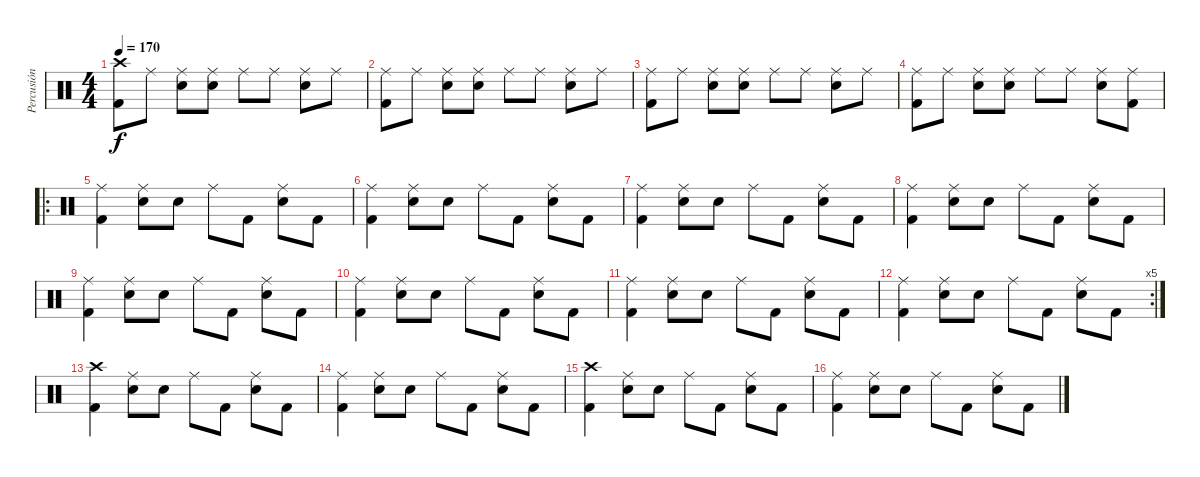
\track ("Percusión" "Percusión") {instrument percussion}
\staff {score}
\articulation defaults
\ts (4 4)
\tempo 170
\clef neutral
\ks c
("Crash high (hit)" "Kick (hit) 2").8{dy f} "Ride (middle)".8 ("Ride (middle)" "Electric Snare (hit)").8 ("Ride (middle)" "Electric Snare (hit)").8 "Ride (middle)".8 "Ride (middle)".8 ("Ride (middle)" "Electric Snare (hit)").8 "Ride (middle)".8 |
("Ride (middle)" "Kick (hit) 2").8 "Ride (middle)".8 ("Ride (middle)" "Electric Snare (hit)").8 ("Ride (middle)" "Electric Snare (hit)").8 "Ride (middle)".8 "Ride (middle)".8 ("Ride (middle)" "Electric Snare (hit)").8 "Ride (middle)".8 |
("Ride (middle)" "Kick (hit) 2").8 "Ride (middle)".8 ("Ride (middle)" "Electric Snare (hit)").8 ("Ride (middle)" "Electric Snare (hit)").8 "Ride (middle)".8 "Ride (middle)".8 ("Ride (middle)" "Electric Snare (hit)").8 "Ride (middle)".8 |
("Ride (middle)" "Kick (hit) 2").8 "Ride (middle)".8 ("Ride (middle)" "Electric Snare (hit)").8 ("Ride (middle)" "Electric Snare (hit)").8 "Ride (middle)".8 "Ride (middle)".8 ("Ride (middle)" "Electric Snare (hit)").8 ("Ride (middle)" "Kick (hit) 2").8 |
\ro
("Ride (middle)" "Kick (hit) 2").4 ("Ride (middle)" "Electric Snare (hit)").8 "Electric Snare (hit)".8 "Ride (middle)".8 "Kick (hit) 2".8 ("Ride (middle)" "Electric Snare (hit)").8 "Kick (hit) 2".8 |
("Ride (middle)" "Kick (hit) 2").4 ("Ride (middle)" "Electric Snare (hit)").8 "Electric Snare (hit)".8 "Ride (middle)".8 "Kick (hit) 2".8 ("Ride (middle)" "Electric Snare (hit)").8 "Kick (hit) 2".8 |
("Ride (middle)" "Kick (hit) 2").4 ("Ride (middle)" "Electric Snare (hit)").8 "Electric Snare (hit)".8 "Ride (middle)".8 "Kick (hit) 2".8 ("Ride (middle)" "Electric Snare (hit)").8 "Kick (hit) 2".8 |
("Ride (middle)" "Kick (hit) 2").4 ("Ride (middle)" "Electric Snare (hit)").8 "Electric Snare (hit)".8 "Ride (middle)".8 "Kick (hit) 2".8 ("Ride (middle)" "Electric Snare (hit)").8 "Kick (hit) 2".8 |
("Ride (middle)" "Kick (hit) 2").4 ("Ride (middle)" "Electric Snare (hit)").8 "Electric Snare (hit)".8 "Ride (middle)".8 "Kick (hit) 2".8 ("Ride (middle)" "Electric Snare (hit)").8 "Kick (hit) 2".8 |
("Ride (middle)" "Kick (hit) 2").4 ("Ride (middle)" "Electric Snare (hit)").8 "Electric Snare (hit)".8 "Ride (middle)".8 "Kick (hit) 2".8 ("Ride (middle)" "Electric Snare (hit)").8 "Kick (hit) 2".8 |
("Ride (middle)" "Kick (hit) 2").4 ("Ride (middle)" "Electric Snare (hit)").8 "Electric Snare (hit)".8 "Ride (middle)".8 "Kick (hit) 2".8 ("Ride (middle)" "Electric Snare (hit)").8 "Kick (hit) 2".8 |
\rc 5
("Ride (middle)" "Kick (hit) 2").4 ("Ride (middle)" "Electric Snare (hit)").8 "Electric Snare (hit)".8 "Ride (middle)".8 "Kick (hit) 2".8 ("Ride (middle)" "Electric Snare (hit)").8 "Kick (hit) 2".8 |
("Crash high (hit)" "Kick (hit) 2").4 ("Ride (middle)" "Electric Snare (hit)").8 "Electric Snare (hit)".8 "Ride (middle)".8 "Kick (hit) 2".8 ("Ride (middle)" "Electric Snare (hit)").8 "Kick (hit) 2".8 |
("Ride (middle)" "Kick (hit) 2").4 ("Ride (middle)" "Electric Snare (hit)").8 "Electric Snare (hit)".8 "Ride (middle)".8 "Kick (hit) 2".8 ("Ride (middle)" "Electric Snare (hit)").8 "Kick (hit) 2".8 |
("Crash high (hit)" "Kick (hit) 2").4 ("Ride (middle)" "Electric Snare (hit)").8 "Electric Snare (hit)".8 "Ride (middle)".8 "Kick (hit) 2".8 ("Ride (middle)" "Electric Snare (hit)").8 "Kick (hit) 2".8 |
("Ride (middle)" "Kick (hit) 2").4 ("Ride (middle)" "Electric Snare (hit)").8 "Electric Snare (hit)".8 "Ride (middle)".8 "Kick (hit) 2".8 ("Ride (middle)" "Electric Snare (hit)").8 "Kick (hit) 2".8
